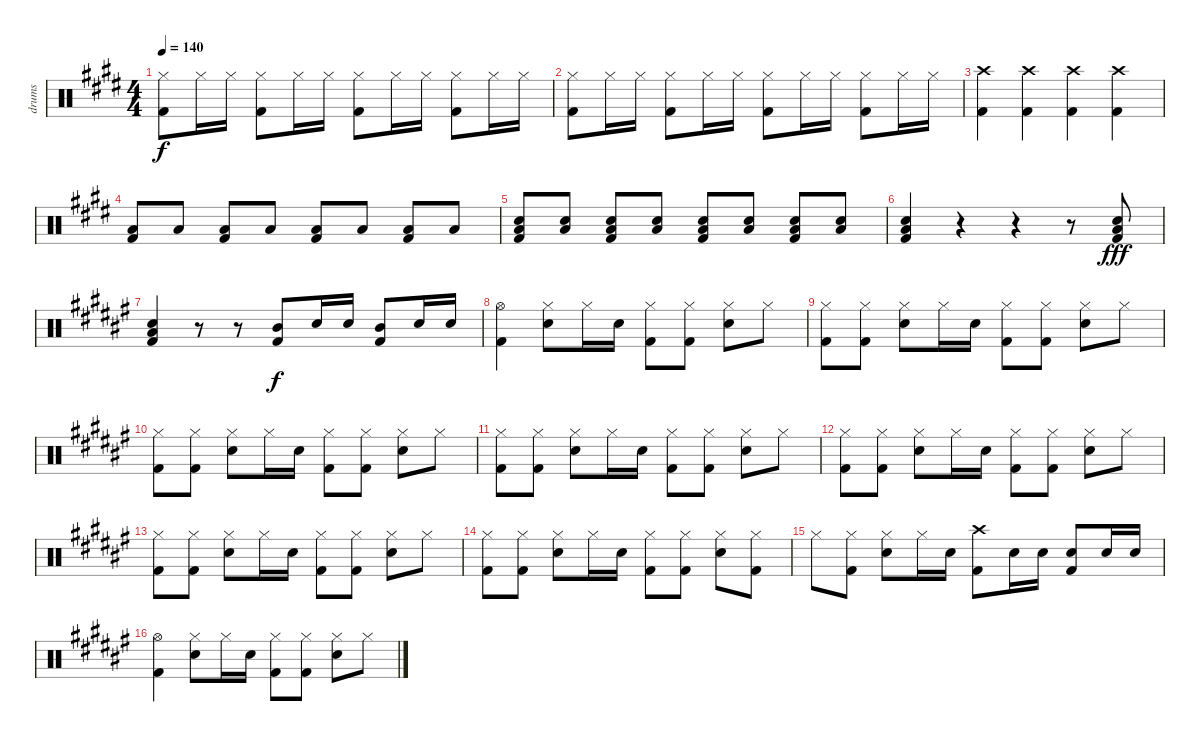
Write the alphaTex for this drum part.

\track ("drums" "drums") {instrument percussion}
\staff {score}
\articulation defaults
\ts (4 4)
\tempo 140
\clef neutral
\ks e
("Hi-Hat (closed)" "Kick (hit) 2").8{dy f} "Hi-Hat (closed)".16 "Hi-Hat (closed)".16 ("Hi-Hat (closed)" "Kick (hit) 2").8 "Hi-Hat (closed)".16 "Hi-Hat (closed)".16 ("Hi-Hat (closed)" "Kick (hit) 2").8 "Hi-Hat (closed)".16 "Hi-Hat (closed)".16 ("Hi-Hat (closed)" "Kick (hit) 2").8 "Hi-Hat (closed)".16 "Hi-Hat (closed)".16 |
("Hi-Hat (closed)" "Kick (hit) 2").8 "Hi-Hat (closed)".16 "Hi-Hat (closed)".16 ("Hi-Hat (closed)" "Kick (hit) 2").8 "Hi-Hat (closed)".16 "Hi-Hat (closed)".16 ("Hi-Hat (closed)" "Kick (hit) 2").8 "Hi-Hat (closed)".16 "Hi-Hat (closed)".16 ("Hi-Hat (closed)" "Kick (hit) 2").8 "Hi-Hat (closed)".16 "Hi-Hat (closed)".16 |
("Crash high (hit)" "Kick (hit) 2").4 ("Crash high (hit)" "Kick (hit) 2").4 ("Crash high (hit)" "Kick (hit) 2").4 ("Crash high (hit)" "Kick (hit) 2").4 |
("Low Floor Tom (hit)" "Kick (hit) 2").8 "Low Floor Tom (hit)".8 ("Low Floor Tom (hit)" "Kick (hit) 2").8 "Low Floor Tom (hit)".8 ("Low Floor Tom (hit)" "Kick (hit) 2").8 "Low Floor Tom (hit)".8 ("Low Floor Tom (hit)" "Kick (hit) 2").8 "Low Floor Tom (hit)".8 |
("Snare (hit) 2" "Low Floor Tom (hit)" "Kick (hit) 2").8 ("Snare (hit) 2" "Low Floor Tom (hit)").8 ("Snare (hit) 2" "Low Floor Tom (hit)" "Kick (hit) 2").8 ("Snare (hit) 2" "Low Floor Tom (hit)").8 ("Snare (hit) 2" "Low Floor Tom (hit)" "Kick (hit) 2").8 ("Snare (hit) 2" "Low Floor Tom (hit)").8 ("Snare (hit) 2" "Low Floor Tom (hit)" "Kick (hit) 2").8 ("Snare (hit) 2" "Low Floor Tom (hit)").8 |
("Snare (hit) 2" "Low Floor Tom (hit)" "Kick (hit) 2").4 r.4 r.4 r.8 ("Snare (hit) 2" "Low Floor Tom (hit)" "Kick (hit) 2").8{dy fff} |
\ks d#minor
("Snare (hit) 2" "Low Floor Tom (hit)" "Kick (hit) 2").4 r.8 r.8 ("Mid Tom (hit)" "Kick (hit) 2").8{dy f} "Snare (hit) 2".16 "Snare (hit) 2".16 ("Mid Tom (hit)" "Kick (hit) 2").8 "Snare (hit) 2".16 "Snare (hit) 2".16 |
("Hi-Hat (open)" "Kick (hit) 2").4 ("Hi-Hat (closed)" "Snare (hit) 2").8 "Hi-Hat (closed)".16 "Snare (hit) 2".16 ("Hi-Hat (closed)" "Kick (hit) 2").8 ("Hi-Hat (closed)" "Kick (hit) 2").8 ("Hi-Hat (closed)" "Snare (hit) 2").8 "Hi-Hat (closed)".8 |
("Hi-Hat (closed)" "Kick (hit) 2").8 ("Hi-Hat (closed)" "Kick (hit) 2").8 ("Hi-Hat (closed)" "Snare (hit) 2").8 "Hi-Hat (closed)".16 "Snare (hit) 2".16 ("Hi-Hat (closed)" "Kick (hit) 2").8 ("Hi-Hat (closed)" "Kick (hit) 2").8 ("Hi-Hat (closed)" "Snare (hit) 2").8 "Hi-Hat (closed)".8 |
("Hi-Hat (closed)" "Kick (hit) 2").8 ("Hi-Hat (closed)" "Kick (hit) 2").8 ("Hi-Hat (closed)" "Snare (hit) 2").8 "Hi-Hat (closed)".16 "Snare (hit) 2".16 ("Hi-Hat (closed)" "Kick (hit) 2").8 ("Hi-Hat (closed)" "Kick (hit) 2").8 ("Hi-Hat (closed)" "Snare (hit) 2").8 "Hi-Hat (closed)".8 |
("Hi-Hat (closed)" "Kick (hit) 2").8 ("Hi-Hat (closed)" "Kick (hit) 2").8 ("Hi-Hat (closed)" "Snare (hit) 2").8 "Hi-Hat (closed)".16 "Snare (hit) 2".16 ("Hi-Hat (closed)" "Kick (hit) 2").8 ("Hi-Hat (closed)" "Kick (hit) 2").8 ("Hi-Hat (closed)" "Snare (hit) 2").8 "Hi-Hat (closed)".8 |
("Hi-Hat (closed)" "Kick (hit) 2").8 ("Hi-Hat (closed)" "Kick (hit) 2").8 ("Hi-Hat (closed)" "Snare (hit) 2").8 "Hi-Hat (closed)".16 "Snare (hit) 2".16 ("Hi-Hat (closed)" "Kick (hit) 2").8 ("Hi-Hat (closed)" "Kick (hit) 2").8 ("Hi-Hat (closed)" "Snare (hit) 2").8 "Hi-Hat (closed)".8 |
("Hi-Hat (closed)" "Kick (hit) 2").8 ("Hi-Hat (closed)" "Kick (hit) 2").8 ("Hi-Hat (closed)" "Snare (hit) 2").8 "Hi-Hat (closed)".16 "Snare (hit) 2".16 ("Hi-Hat (closed)" "Kick (hit) 2").8 ("Hi-Hat (closed)" "Kick (hit) 2").8 ("Hi-Hat (closed)" "Snare (hit) 2").8 "Hi-Hat (closed)".8 |
("Hi-Hat (closed)" "Kick (hit) 2").8 ("Hi-Hat (closed)" "Kick (hit) 2").8 ("Hi-Hat (closed)" "Snare (hit) 2").8 "Hi-Hat (closed)".16 "Snare (hit) 2".16 ("Hi-Hat (closed)" "Kick (hit) 2").8 ("Hi-Hat (closed)" "Kick (hit) 2").8 ("Hi-Hat (closed)" "Snare (hit) 2").8 ("Hi-Hat (closed)" "Kick (hit) 2").8 |
"Hi-Hat (closed)".8 ("Hi-Hat (closed)" "Kick (hit) 2").8 ("Hi-Hat (closed)" "Snare (hit) 2").8 "Hi-Hat (closed)".16 "Snare (hit) 2".16 ("Crash high (hit)" "Kick (hit) 2").8 "Snare (hit) 2".16 "Snare (hit) 2".16 ("Snare (hit) 2" "Kick (hit) 2").8 "Snare (hit) 2".16 "Snare (hit) 2".16 |
("Hi-Hat (open)" "Kick (hit) 2").4 ("Hi-Hat (closed)" "Snare (hit) 2").8 "Hi-Hat (closed)".16 "Snare (hit) 2".16 ("Hi-Hat (closed)" "Kick (hit) 2").8 ("Hi-Hat (closed)" "Kick (hit) 2").8 ("Hi-Hat (closed)" "Snare (hit) 2").8 "Hi-Hat (closed)".8
